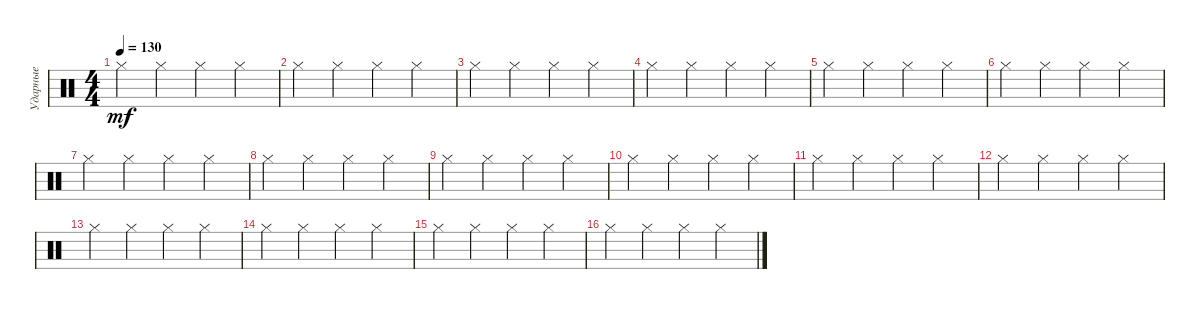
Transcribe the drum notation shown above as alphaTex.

\track ("Ударные" "Ударные") {instrument percussion}
\staff {score}
\articulation defaults
\ts (4 4)
\tempo 130
\clef neutral
\ks c "Hi-Hat (closed)".4{dy mf} "Hi-Hat (closed)".4 "Hi-Hat (closed)".4 "Hi-Hat (closed)".4
|
"Hi-Hat (closed)".4 "Hi-Hat (closed)".4 "Hi-Hat (closed)".4 "Hi-Hat (closed)".4 |
"Hi-Hat (closed)".4 "Hi-Hat (closed)".4 "Hi-Hat (closed)".4 "Hi-Hat (closed)".4 |
"Hi-Hat (closed)".4 "Hi-Hat (closed)".4 "Hi-Hat (closed)".4 "Hi-Hat (closed)".4 |
"Hi-Hat (closed)".4 "Hi-Hat (closed)".4 "Hi-Hat (closed)".4 "Hi-Hat (closed)".4 |
"Hi-Hat (closed)".4 "Hi-Hat (closed)".4 "Hi-Hat (closed)".4 "Hi-Hat (closed)".4 |
"Hi-Hat (closed)".4 "Hi-Hat (closed)".4 "Hi-Hat (closed)".4 "Hi-Hat (closed)".4 |
"Hi-Hat (closed)".4 "Hi-Hat (closed)".4 "Hi-Hat (closed)".4 "Hi-Hat (closed)".4 |
"Hi-Hat (closed)".4 "Hi-Hat (closed)".4 "Hi-Hat (closed)".4 "Hi-Hat (closed)".4 |
"Hi-Hat (closed)".4 "Hi-Hat (closed)".4 "Hi-Hat (closed)".4 "Hi-Hat (closed)".4 |
"Hi-Hat (closed)".4 "Hi-Hat (closed)".4 "Hi-Hat (closed)".4 "Hi-Hat (closed)".4 |
"Hi-Hat (closed)".4 "Hi-Hat (closed)".4 "Hi-Hat (closed)".4 "Hi-Hat (closed)".4 |
"Hi-Hat (closed)".4 "Hi-Hat (closed)".4 "Hi-Hat (closed)".4 "Hi-Hat (closed)".4 |
"Hi-Hat (closed)".4 "Hi-Hat (closed)".4 "Hi-Hat (closed)".4 "Hi-Hat (closed)".4 |
"Hi-Hat (closed)".4 "Hi-Hat (closed)".4 "Hi-Hat (closed)".4 "Hi-Hat (closed)".4 |
"Hi-Hat (closed)".4 "Hi-Hat (closed)".4 "Hi-Hat (closed)".4 "Hi-Hat (closed)".4
